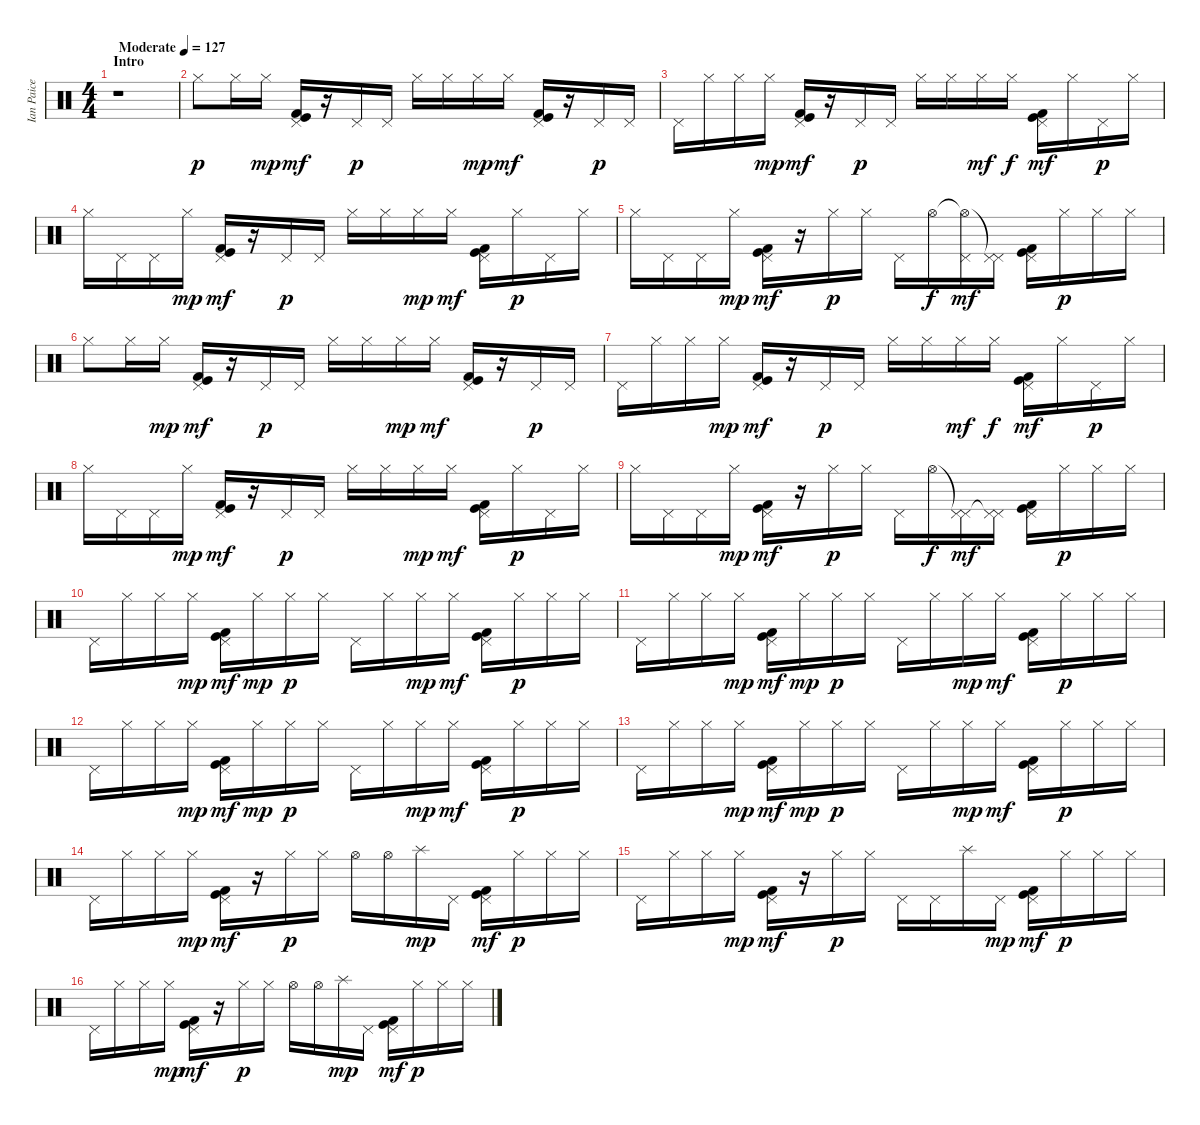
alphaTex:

\track ("Ian Paice" "Ian Paice") {instrument percussion}
\staff {score}
\articulation defaults
\ts (4 4)
\section ("" "Intro")
\tempo (127 "Moderate")
\clef neutral
\ks c
r.1{dy p} |
"Hi-Hat (closed)".8 "Hi-Hat (closed)".16 "Hi-Hat (closed)".16{dy mp} ("Pedal Hi-Hat (hit)" "Kick (hit) 2" "Kick (hit)").16{dy mf} r.16 "Pedal Hi-Hat (hit)".16{dy p} "Pedal Hi-Hat (hit)".16 "Hi-Hat (closed)".16 "Hi-Hat (closed)".16 "Hi-Hat (closed)".16{dy mp} "Hi-Hat (closed)".16{dy mf} ("Pedal Hi-Hat (hit)" "Kick (hit)" "Kick (hit) 2").16 r.16 "Pedal Hi-Hat (hit)".16{dy p} "Pedal Hi-Hat (hit)".16 |
"Pedal Hi-Hat (hit)".16 "Hi-Hat (closed)".16 "Hi-Hat (closed)".16 "Hi-Hat (closed)".16{dy mp} ("Pedal Hi-Hat (hit)" "Kick (hit)" "Kick (hit) 2").16{dy mf} r.16 "Pedal Hi-Hat (hit)".16{dy p} "Pedal Hi-Hat (hit)".16 "Hi-Hat (closed)".16 "Hi-Hat (closed)".16 "Hi-Hat (closed)".16{dy mf} "Hi-Hat (closed)".16{dy f} ("Pedal Hi-Hat (hit)" "Kick (hit)" "Kick (hit) 2").16{dy mf} "Hi-Hat (closed)".16 "Pedal Hi-Hat (hit)".16{dy p} "Hi-Hat (closed)".16 |
"Hi-Hat (closed)".16 "Pedal Hi-Hat (hit)".16 "Pedal Hi-Hat (hit)".16 "Hi-Hat (closed)".16{dy mp} ("Pedal Hi-Hat (hit)" "Kick (hit)" "Kick (hit) 2").16{dy mf} r.16 "Pedal Hi-Hat (hit)".16{dy p} "Pedal Hi-Hat (hit)".16 "Hi-Hat (closed)".16 "Hi-Hat (closed)".16 "Hi-Hat (closed)".16{dy mp} "Hi-Hat (closed)".16{dy mf} ("Pedal Hi-Hat (hit)" "Kick (hit)" "Kick (hit) 2").16 "Hi-Hat (closed)".16{dy p} "Pedal Hi-Hat (hit)".16 "Hi-Hat (closed)".16 |
"Hi-Hat (closed)".16 "Pedal Hi-Hat (hit)".16 "Pedal Hi-Hat (hit)".16 "Hi-Hat (closed)".16{dy mp} ("Pedal Hi-Hat (hit)" "Kick (hit)" "Kick (hit) 2").16{dy mf} r.16 "Hi-Hat (closed)".16{dy p} "Hi-Hat (closed)".16 "Pedal Hi-Hat (hit)".16 "Hi-Hat (open)".16{dy f} ("Hi-Hat (open)"{t} "Pedal Hi-Hat (hit)").16{dy mf} ("Pedal Hi-Hat (hit)"{t} "Pedal Hi-Hat (hit)").16 ("Pedal Hi-Hat (hit)" "Kick (hit)" "Kick (hit) 2").16 "Hi-Hat (closed)".16{dy p} "Hi-Hat (closed)".16 "Hi-Hat (closed)".16 |
"Hi-Hat (closed)".8 "Hi-Hat (closed)".16 "Hi-Hat (closed)".16{dy mp} ("Pedal Hi-Hat (hit)" "Kick (hit) 2" "Kick (hit)").16{dy mf} r.16 "Pedal Hi-Hat (hit)".16{dy p} "Pedal Hi-Hat (hit)".16 "Hi-Hat (closed)".16 "Hi-Hat (closed)".16 "Hi-Hat (closed)".16{dy mp} "Hi-Hat (closed)".16{dy mf} ("Pedal Hi-Hat (hit)" "Kick (hit)" "Kick (hit) 2").16 r.16 "Pedal Hi-Hat (hit)".16{dy p} "Pedal Hi-Hat (hit)".16 |
"Pedal Hi-Hat (hit)".16 "Hi-Hat (closed)".16 "Hi-Hat (closed)".16 "Hi-Hat (closed)".16{dy mp} ("Pedal Hi-Hat (hit)" "Kick (hit)" "Kick (hit) 2").16{dy mf} r.16 "Pedal Hi-Hat (hit)".16{dy p} "Pedal Hi-Hat (hit)".16 "Hi-Hat (closed)".16 "Hi-Hat (closed)".16 "Hi-Hat (closed)".16{dy mf} "Hi-Hat (closed)".16{dy f} ("Pedal Hi-Hat (hit)" "Kick (hit)" "Kick (hit) 2").16{dy mf} "Hi-Hat (closed)".16 "Pedal Hi-Hat (hit)".16{dy p} "Hi-Hat (closed)".16 |
"Hi-Hat (closed)".16 "Pedal Hi-Hat (hit)".16 "Pedal Hi-Hat (hit)".16 "Hi-Hat (closed)".16{dy mp} ("Pedal Hi-Hat (hit)" "Kick (hit)" "Kick (hit) 2").16{dy mf} r.16 "Pedal Hi-Hat (hit)".16{dy p} "Pedal Hi-Hat (hit)".16 "Hi-Hat (closed)".16 "Hi-Hat (closed)".16 "Hi-Hat (closed)".16{dy mp} "Hi-Hat (closed)".16{dy mf} ("Pedal Hi-Hat (hit)" "Kick (hit)" "Kick (hit) 2").16 "Hi-Hat (closed)".16{dy p} "Pedal Hi-Hat (hit)".16 "Hi-Hat (closed)".16 |
"Hi-Hat (closed)".16 "Pedal Hi-Hat (hit)".16 "Pedal Hi-Hat (hit)".16 "Hi-Hat (closed)".16{dy mp} ("Pedal Hi-Hat (hit)" "Kick (hit)" "Kick (hit) 2").16{dy mf} r.16 "Hi-Hat (closed)".16{dy p} "Hi-Hat (closed)".16 "Pedal Hi-Hat (hit)".16 "Hi-Hat (open)".16{dy f} ("Pedal Hi-Hat (hit)"{t} "Pedal Hi-Hat (hit)").16{dy mf} ("Pedal Hi-Hat (hit)"{t} "Pedal Hi-Hat (hit)").16 ("Pedal Hi-Hat (hit)" "Kick (hit)" "Kick (hit) 2").16 "Hi-Hat (closed)".16{dy p} "Hi-Hat (closed)".16 "Hi-Hat (closed)".16 |
"Pedal Hi-Hat (hit)".16 "Hi-Hat (closed)".16 "Hi-Hat (closed)".16 "Hi-Hat (closed)".16{dy mp} ("Pedal Hi-Hat (hit)" "Kick (hit)" "Kick (hit) 2").16{dy mf} "Hi-Hat (closed)".16{dy mp} "Hi-Hat (closed)".16{dy p} "Hi-Hat (closed)".16 "Pedal Hi-Hat (hit)".16 "Hi-Hat (closed)".16 "Hi-Hat (closed)".16{dy mp} "Hi-Hat (closed)".16{dy mf} ("Pedal Hi-Hat (hit)" "Kick (hit)" "Kick (hit) 2").16 "Hi-Hat (closed)".16{dy p} "Hi-Hat (closed)".16 "Hi-Hat (closed)".16 |
"Pedal Hi-Hat (hit)".16 "Hi-Hat (closed)".16 "Hi-Hat (closed)".16 "Hi-Hat (closed)".16{dy mp} ("Pedal Hi-Hat (hit)" "Kick (hit)" "Kick (hit) 2").16{dy mf} "Hi-Hat (closed)".16{dy mp} "Hi-Hat (closed)".16{dy p} "Hi-Hat (closed)".16 "Pedal Hi-Hat (hit)".16 "Hi-Hat (closed)".16 "Hi-Hat (closed)".16{dy mp} "Hi-Hat (closed)".16{dy mf} ("Pedal Hi-Hat (hit)" "Kick (hit)" "Kick (hit) 2").16 "Hi-Hat (closed)".16{dy p} "Hi-Hat (closed)".16 "Hi-Hat (closed)".16 |
"Pedal Hi-Hat (hit)".16 "Hi-Hat (closed)".16 "Hi-Hat (closed)".16 "Hi-Hat (closed)".16{dy mp} ("Pedal Hi-Hat (hit)" "Kick (hit)" "Kick (hit) 2").16{dy mf} "Hi-Hat (closed)".16{dy mp} "Hi-Hat (closed)".16{dy p} "Hi-Hat (closed)".16 "Pedal Hi-Hat (hit)".16 "Hi-Hat (closed)".16 "Hi-Hat (closed)".16{dy mp} "Hi-Hat (closed)".16{dy mf} ("Pedal Hi-Hat (hit)" "Kick (hit)" "Kick (hit) 2").16 "Hi-Hat (closed)".16{dy p} "Hi-Hat (closed)".16 "Hi-Hat (closed)".16 |
"Pedal Hi-Hat (hit)".16 "Hi-Hat (closed)".16 "Hi-Hat (closed)".16 "Hi-Hat (closed)".16{dy mp} ("Pedal Hi-Hat (hit)" "Kick (hit)" "Kick (hit) 2").16{dy mf} "Hi-Hat (closed)".16{dy mp} "Hi-Hat (closed)".16{dy p} "Hi-Hat (closed)".16 "Pedal Hi-Hat (hit)".16 "Hi-Hat (closed)".16 "Hi-Hat (closed)".16{dy mp} "Hi-Hat (closed)".16{dy mf} ("Pedal Hi-Hat (hit)" "Kick (hit)" "Kick (hit) 2").16 "Hi-Hat (closed)".16{dy p} "Hi-Hat (closed)".16 "Hi-Hat (closed)".16 |
"Pedal Hi-Hat (hit)".16 "Hi-Hat (closed)".16 "Hi-Hat (closed)".16 "Hi-Hat (closed)".16{dy mp} ("Pedal Hi-Hat (hit)" "Kick (hit)" "Kick (hit) 2").16{dy mf} r.16 "Hi-Hat (closed)".16{dy p} "Hi-Hat (closed)".16 "Hi-Hat (open)".16 "Hi-Hat (open)".16 "Splash (hit)".16{dy mp} "Pedal Hi-Hat (hit)".16 ("Pedal Hi-Hat (hit)" "Kick (hit)" "Kick (hit) 2").16{dy mf} "Hi-Hat (closed)".16{dy p} "Hi-Hat (closed)".16 "Hi-Hat (closed)".16 |
"Pedal Hi-Hat (hit)".16 "Hi-Hat (closed)".16 "Hi-Hat (closed)".16 "Hi-Hat (closed)".16{dy mp} ("Pedal Hi-Hat (hit)" "Kick (hit)" "Kick (hit) 2").16{dy mf} r.16 "Hi-Hat (closed)".16{dy p} "Hi-Hat (closed)".16 "Pedal Hi-Hat (hit)".16 "Pedal Hi-Hat (hit)".16 "Splash (hit)".16 "Pedal Hi-Hat (hit)".16{dy mp} ("Pedal Hi-Hat (hit)" "Kick (hit)" "Kick (hit) 2").16{dy mf} "Hi-Hat (closed)".16{dy p} "Hi-Hat (closed)".16 "Hi-Hat (closed)".16 |
"Pedal Hi-Hat (hit)".16 "Hi-Hat (closed)".16 "Hi-Hat (closed)".16 "Hi-Hat (closed)".16{dy mp} ("Pedal Hi-Hat (hit)" "Kick (hit)" "Kick (hit) 2").16{dy mf} r.16 "Hi-Hat (closed)".16{dy p} "Hi-Hat (closed)".16 "Hi-Hat (open)".16 "Hi-Hat (open)".16 "Splash (hit)".16{dy mp} "Pedal Hi-Hat (hit)".16 ("Pedal Hi-Hat (hit)" "Kick (hit)" "Kick (hit) 2").16{dy mf} "Hi-Hat (closed)".16{dy p} "Hi-Hat (closed)".16 "Hi-Hat (closed)".16
